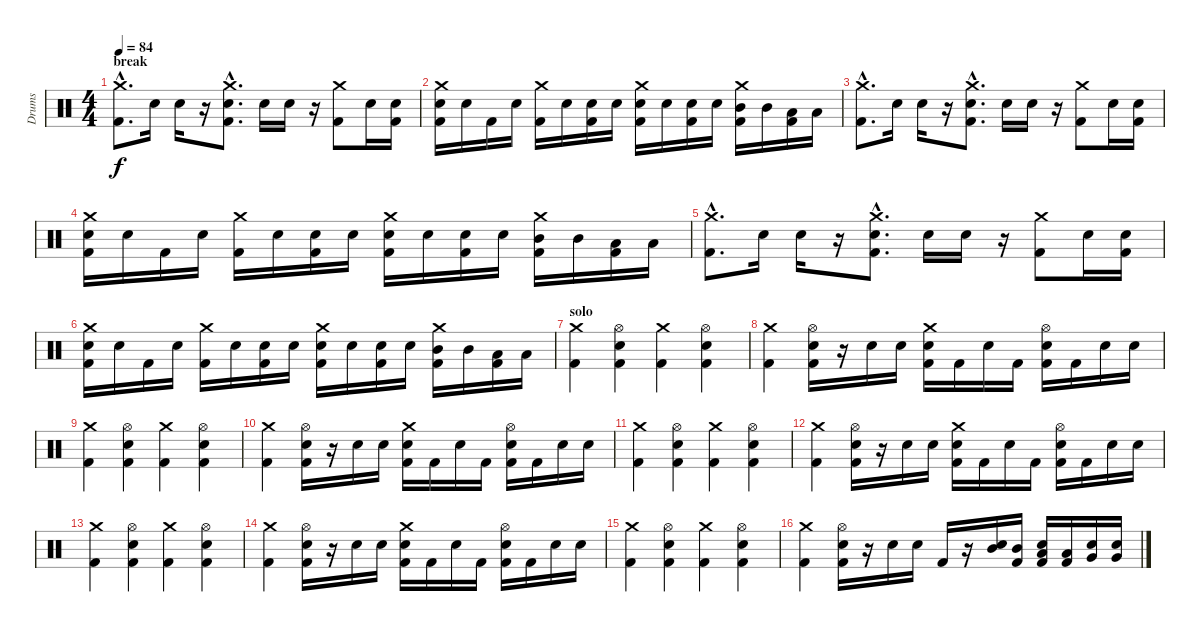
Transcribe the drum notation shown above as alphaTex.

\track ("Drums" "Drums") {instrument percussion}
\staff {score}
\articulation defaults
\ts (4 4)
\section ("" "break")
\tempo 84
\clef neutral
\ks c
("Crash medium (hit)"{hac} "Kick (hit) 2"{hac}).8{d dy f} "Electric Snare (hit)".16 "Electric Snare (hit)".16 r.16 ("Crash medium (hit)"{hac} "Electric Snare (hit)"{hac} "Kick (hit) 2"{hac}).8{d} "Electric Snare (hit)".16 "Electric Snare (hit)".16 r.16 ("Crash medium (hit)" "Kick (hit) 2").8 "Electric Snare (hit)".16 ("Electric Snare (hit)" "Kick (hit) 2").16 |
("Crash medium (hit)" "Electric Snare (hit)" "Kick (hit) 2").16 "Electric Snare (hit)".16 "Kick (hit) 2".16 "Electric Snare (hit)".16 ("Crash medium (hit)" "Kick (hit) 2").16 "Electric Snare (hit)".16 ("Electric Snare (hit)" "Kick (hit) 2").16 "Electric Snare (hit)".16 ("Crash medium (hit)" "Electric Snare (hit)" "Kick (hit) 2").16 "Electric Snare (hit)".16 ("Electric Snare (hit)" "Kick (hit) 2").16 "Electric Snare (hit)".16 ("Crash medium (hit)" "Mid Tom (hit)" "Kick (hit) 2").16 "Mid Tom (hit)".16 ("Low Tom (hit)" "Kick (hit) 2").16 "Low Tom (hit)".16 |
("Crash medium (hit)"{hac} "Kick (hit) 2"{hac}).8{d} "Electric Snare (hit)".16 "Electric Snare (hit)".16 r.16 ("Crash medium (hit)"{hac} "Electric Snare (hit)"{hac} "Kick (hit) 2"{hac}).8{d} "Electric Snare (hit)".16 "Electric Snare (hit)".16 r.16 ("Crash medium (hit)" "Kick (hit) 2").8 "Electric Snare (hit)".16 ("Electric Snare (hit)" "Kick (hit) 2").16 |
("Crash medium (hit)" "Electric Snare (hit)" "Kick (hit) 2").16 "Electric Snare (hit)".16 "Kick (hit) 2".16 "Electric Snare (hit)".16 ("Crash medium (hit)" "Kick (hit) 2").16 "Electric Snare (hit)".16 ("Electric Snare (hit)" "Kick (hit) 2").16 "Electric Snare (hit)".16 ("Crash medium (hit)" "Electric Snare (hit)" "Kick (hit) 2").16 "Electric Snare (hit)".16 ("Electric Snare (hit)" "Kick (hit) 2").16 "Electric Snare (hit)".16 ("Crash medium (hit)" "Mid Tom (hit)" "Kick (hit) 2").16 "Mid Tom (hit)".16 ("Low Tom (hit)" "Kick (hit) 2").16 "Low Tom (hit)".16 |
("Crash medium (hit)"{hac} "Kick (hit) 2"{hac}).8{d} "Electric Snare (hit)".16 "Electric Snare (hit)".16 r.16 ("Crash medium (hit)"{hac} "Electric Snare (hit)"{hac} "Kick (hit) 2"{hac}).8{d} "Electric Snare (hit)".16 "Electric Snare (hit)".16 r.16 ("Crash medium (hit)" "Kick (hit) 2").8 "Electric Snare (hit)".16 ("Electric Snare (hit)" "Kick (hit) 2").16 |
("Crash medium (hit)" "Electric Snare (hit)" "Kick (hit) 2").16 "Electric Snare (hit)".16 "Kick (hit) 2".16 "Electric Snare (hit)".16 ("Crash medium (hit)" "Kick (hit) 2").16 "Electric Snare (hit)".16 ("Electric Snare (hit)" "Kick (hit) 2").16 "Electric Snare (hit)".16 ("Crash medium (hit)" "Electric Snare (hit)" "Kick (hit) 2").16 "Electric Snare (hit)".16 ("Electric Snare (hit)" "Kick (hit) 2").16 "Electric Snare (hit)".16 ("Crash medium (hit)" "Mid Tom (hit)" "Kick (hit) 2").16 "Mid Tom (hit)".16 ("Low Tom (hit)" "Kick (hit) 2").16 "Low Tom (hit)".16 |
\section ("" "solo")
("Crash medium (hit)" "Kick (hit) 2").4 ("Hi-Hat (open)" "Electric Snare (hit)" "Kick (hit) 2").4 ("Crash medium (hit)" "Kick (hit) 2").4 ("Hi-Hat (open)" "Electric Snare (hit)" "Kick (hit) 2").4 |
("Crash medium (hit)" "Kick (hit) 2").4 ("Hi-Hat (open)" "Electric Snare (hit)" "Kick (hit) 2").16 r.16 "Electric Snare (hit)".16 "Electric Snare (hit)".16 ("Crash medium (hit)" "Electric Snare (hit)" "Kick (hit) 2").16 "Kick (hit) 2".16 "Electric Snare (hit)".16 "Kick (hit) 2".16 ("Hi-Hat (open)" "Electric Snare (hit)" "Kick (hit) 2").16 "Kick (hit) 2".16 "Electric Snare (hit)".16 "Electric Snare (hit)".16 |
("Crash medium (hit)" "Kick (hit) 2").4 ("Hi-Hat (open)" "Electric Snare (hit)" "Kick (hit) 2").4 ("Crash medium (hit)" "Kick (hit) 2").4 ("Hi-Hat (open)" "Electric Snare (hit)" "Kick (hit) 2").4 |
("Crash medium (hit)" "Kick (hit) 2").4 ("Hi-Hat (open)" "Electric Snare (hit)" "Kick (hit) 2").16 r.16 "Electric Snare (hit)".16 "Electric Snare (hit)".16 ("Crash medium (hit)" "Electric Snare (hit)" "Kick (hit) 2").16 "Kick (hit) 2".16 "Electric Snare (hit)".16 "Kick (hit) 2".16 ("Hi-Hat (open)" "Electric Snare (hit)" "Kick (hit) 2").16 "Kick (hit) 2".16 "Electric Snare (hit)".16 "Electric Snare (hit)".16 |
("Crash medium (hit)" "Kick (hit) 2").4 ("Hi-Hat (open)" "Electric Snare (hit)" "Kick (hit) 2").4 ("Crash medium (hit)" "Kick (hit) 2").4 ("Hi-Hat (open)" "Electric Snare (hit)" "Kick (hit) 2").4 |
("Crash medium (hit)" "Kick (hit) 2").4 ("Hi-Hat (open)" "Electric Snare (hit)" "Kick (hit) 2").16 r.16 "Electric Snare (hit)".16 "Electric Snare (hit)".16 ("Crash medium (hit)" "Electric Snare (hit)" "Kick (hit) 2").16 "Kick (hit) 2".16 "Electric Snare (hit)".16 "Kick (hit) 2".16 ("Hi-Hat (open)" "Electric Snare (hit)" "Kick (hit) 2").16 "Kick (hit) 2".16 "Electric Snare (hit)".16 "Electric Snare (hit)".16 |
("Crash medium (hit)" "Kick (hit) 2").4 ("Hi-Hat (open)" "Electric Snare (hit)" "Kick (hit) 2").4 ("Crash medium (hit)" "Kick (hit) 2").4 ("Hi-Hat (open)" "Electric Snare (hit)" "Kick (hit) 2").4 |
("Crash medium (hit)" "Kick (hit) 2").4 ("Hi-Hat (open)" "Electric Snare (hit)" "Kick (hit) 2").16 r.16 "Electric Snare (hit)".16 "Electric Snare (hit)".16 ("Crash medium (hit)" "Electric Snare (hit)" "Kick (hit) 2").16 "Kick (hit) 2".16 "Electric Snare (hit)".16 "Kick (hit) 2".16 ("Hi-Hat (open)" "Electric Snare (hit)" "Kick (hit) 2").16 "Kick (hit) 2".16 "Electric Snare (hit)".16 "Electric Snare (hit)".16 |
("Crash medium (hit)" "Kick (hit) 2").4 ("Hi-Hat (open)" "Electric Snare (hit)" "Kick (hit) 2").4 ("Crash medium (hit)" "Kick (hit) 2").4 ("Hi-Hat (open)" "Electric Snare (hit)" "Kick (hit) 2").4 |
("Crash medium (hit)" "Kick (hit) 2").4 ("Hi-Hat (open)" "Electric Snare (hit)" "Kick (hit) 2").16 r.16 "Electric Snare (hit)".16 "Electric Snare (hit)".16 "Kick (hit) 2".16 r.16 ("Mid Tom (hit)" "Electric Snare (hit)").16 ("Mid Tom (hit)" "Kick (hit) 2").16 ("Low Tom (hit)" "Electric Snare (hit)" "Kick (hit) 2").16 ("Low Tom (hit)" "Kick (hit) 2").16 ("Very Low Tom (hit)" "Electric Snare (hit)").16 ("Very Low Tom (hit)" "Electric Snare (hit)").16
